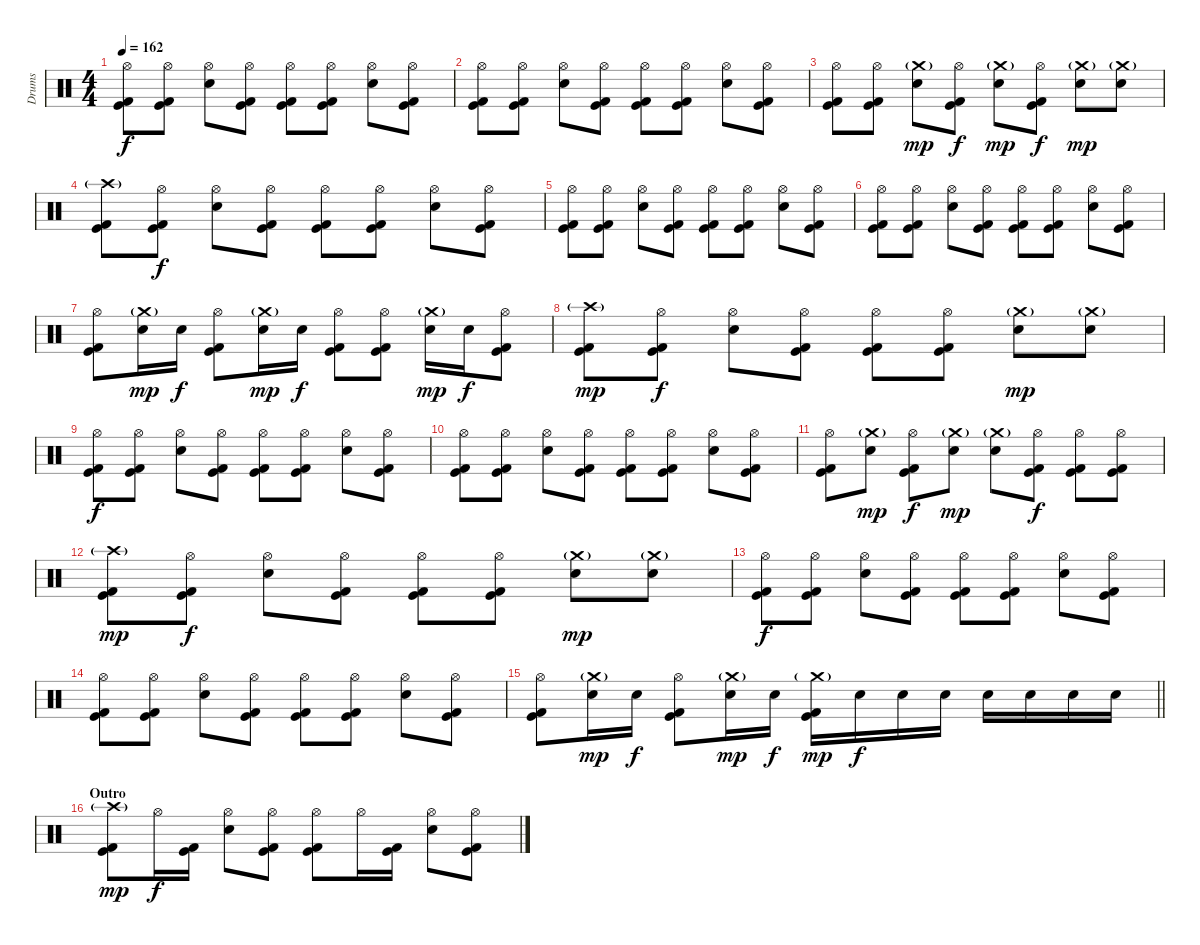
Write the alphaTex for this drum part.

\track ("Drums" "Drums") {instrument percussion}
\staff {score}
\articulation defaults
\ts (4 4)
\tempo 162
\clef neutral
\ks c
("Hi-Hat (open)" "Kick (hit)" "Kick (hit) 2").8{dy f} ("Hi-Hat (open)" "Kick (hit)" "Kick (hit) 2").8 ("Hi-Hat (open)" "Electric Snare (hit)").8 ("Hi-Hat (open)" "Kick (hit)" "Kick (hit) 2").8 ("Hi-Hat (open)" "Kick (hit)" "Kick (hit) 2").8 ("Hi-Hat (open)" "Kick (hit)" "Kick (hit) 2").8 ("Hi-Hat (open)" "Electric Snare (hit)").8 ("Hi-Hat (open)" "Kick (hit)" "Kick (hit) 2").8 |
("Hi-Hat (open)" "Kick (hit)" "Kick (hit) 2").8 ("Hi-Hat (open)" "Kick (hit)" "Kick (hit) 2").8 ("Hi-Hat (open)" "Electric Snare (hit)").8 ("Hi-Hat (open)" "Kick (hit)" "Kick (hit) 2").8 ("Hi-Hat (open)" "Kick (hit)" "Kick (hit) 2").8 ("Hi-Hat (open)" "Kick (hit)" "Kick (hit) 2").8 ("Hi-Hat (open)" "Electric Snare (hit)").8 ("Hi-Hat (open)" "Kick (hit)" "Kick (hit) 2").8 |
("Hi-Hat (open)" "Kick (hit)" "Kick (hit) 2").8 ("Hi-Hat (open)" "Kick (hit)" "Kick (hit) 2").8 ("Crash medium (hit)"{g} "Electric Snare (hit)").8{dy mp} ("Hi-Hat (open)" "Kick (hit)" "Kick (hit) 2").8{dy f} ("Crash medium (hit)"{g} "Electric Snare (hit)").8{dy mp} ("Hi-Hat (open)" "Kick (hit)" "Kick (hit) 2").8{dy f} ("Crash medium (hit)"{g} "Electric Snare (hit)").8{dy mp} ("Crash medium (hit)"{g} "Electric Snare (hit)").8 |
("Crash high (hit)"{g} "Kick (hit)" "Kick (hit) 2").8 ("Hi-Hat (open)" "Kick (hit)" "Kick (hit) 2").8{dy f} ("Hi-Hat (open)" "Electric Snare (hit)").8 ("Hi-Hat (open)" "Kick (hit)" "Kick (hit) 2").8 ("Hi-Hat (open)" "Kick (hit)" "Kick (hit) 2").8 ("Hi-Hat (open)" "Kick (hit)" "Kick (hit) 2").8 ("Hi-Hat (open)" "Electric Snare (hit)").8 ("Hi-Hat (open)" "Kick (hit)" "Kick (hit) 2").8 |
("Hi-Hat (open)" "Kick (hit)" "Kick (hit) 2").8 ("Hi-Hat (open)" "Kick (hit)" "Kick (hit) 2").8 ("Hi-Hat (open)" "Electric Snare (hit)").8 ("Hi-Hat (open)" "Kick (hit)" "Kick (hit) 2").8 ("Hi-Hat (open)" "Kick (hit)" "Kick (hit) 2").8 ("Hi-Hat (open)" "Kick (hit)" "Kick (hit) 2").8 ("Hi-Hat (open)" "Electric Snare (hit)").8 ("Hi-Hat (open)" "Kick (hit)" "Kick (hit) 2").8 |
("Hi-Hat (open)" "Kick (hit)" "Kick (hit) 2").8 ("Hi-Hat (open)" "Kick (hit)" "Kick (hit) 2").8 ("Hi-Hat (open)" "Electric Snare (hit)").8 ("Hi-Hat (open)" "Kick (hit)" "Kick (hit) 2").8 ("Hi-Hat (open)" "Kick (hit)" "Kick (hit) 2").8 ("Hi-Hat (open)" "Kick (hit)" "Kick (hit) 2").8 ("Hi-Hat (open)" "Electric Snare (hit)").8 ("Hi-Hat (open)" "Kick (hit)" "Kick (hit) 2").8 |
("Hi-Hat (open)" "Kick (hit)" "Kick (hit) 2").8 ("Crash medium (hit)"{g} "Electric Snare (hit)").16{dy mp} "Electric Snare (hit)".16{dy f} ("Hi-Hat (open)" "Kick (hit)" "Kick (hit) 2").8 ("Crash medium (hit)"{g} "Electric Snare (hit)").16{dy mp} "Electric Snare (hit)".16{dy f} ("Hi-Hat (open)" "Kick (hit)" "Kick (hit) 2").8 ("Hi-Hat (open)" "Kick (hit)" "Kick (hit) 2").8 ("Crash medium (hit)"{g} "Electric Snare (hit)").16{dy mp} "Electric Snare (hit)".16{dy f} ("Hi-Hat (open)" "Kick (hit)" "Kick (hit) 2").8 |
("Crash high (hit)"{g} "Kick (hit)" "Kick (hit) 2").8{dy mp} ("Hi-Hat (open)" "Kick (hit)" "Kick (hit) 2").8{dy f} ("Hi-Hat (open)" "Electric Snare (hit)").8 ("Hi-Hat (open)" "Kick (hit)" "Kick (hit) 2").8 ("Hi-Hat (open)" "Kick (hit)" "Kick (hit) 2").8 ("Hi-Hat (open)" "Kick (hit)" "Kick (hit) 2").8 ("Crash medium (hit)"{g} "Electric Snare (hit)").8{dy mp} ("Crash medium (hit)"{g} "Electric Snare (hit)").8 |
("Hi-Hat (open)" "Kick (hit)" "Kick (hit) 2").8{dy f} ("Hi-Hat (open)" "Kick (hit)" "Kick (hit) 2").8 ("Hi-Hat (open)" "Electric Snare (hit)").8 ("Hi-Hat (open)" "Kick (hit)" "Kick (hit) 2").8 ("Hi-Hat (open)" "Kick (hit)" "Kick (hit) 2").8 ("Hi-Hat (open)" "Kick (hit)" "Kick (hit) 2").8 ("Hi-Hat (open)" "Electric Snare (hit)").8 ("Hi-Hat (open)" "Kick (hit)" "Kick (hit) 2").8 |
("Hi-Hat (open)" "Kick (hit)" "Kick (hit) 2").8 ("Hi-Hat (open)" "Kick (hit)" "Kick (hit) 2").8 ("Hi-Hat (open)" "Electric Snare (hit)").8 ("Hi-Hat (open)" "Kick (hit)" "Kick (hit) 2").8 ("Hi-Hat (open)" "Kick (hit)" "Kick (hit) 2").8 ("Hi-Hat (open)" "Kick (hit)" "Kick (hit) 2").8 ("Hi-Hat (open)" "Electric Snare (hit)").8 ("Hi-Hat (open)" "Kick (hit)" "Kick (hit) 2").8 |
("Hi-Hat (open)" "Kick (hit)" "Kick (hit) 2").8 ("Crash medium (hit)"{g} "Electric Snare (hit)").8{dy mp} ("Hi-Hat (open)" "Kick (hit)" "Kick (hit) 2").8{dy f} ("Crash medium (hit)"{g} "Electric Snare (hit)").8{dy mp} ("Crash medium (hit)"{g} "Electric Snare (hit)").8 ("Hi-Hat (open)" "Kick (hit)" "Kick (hit) 2").8{dy f} ("Hi-Hat (open)" "Kick (hit)" "Kick (hit) 2").8 ("Hi-Hat (open)" "Kick (hit)" "Kick (hit) 2").8 |
("Crash high (hit)"{g} "Kick (hit)" "Kick (hit) 2").8{dy mp} ("Hi-Hat (open)" "Kick (hit)" "Kick (hit) 2").8{dy f} ("Hi-Hat (open)" "Electric Snare (hit)").8 ("Hi-Hat (open)" "Kick (hit)" "Kick (hit) 2").8 ("Hi-Hat (open)" "Kick (hit)" "Kick (hit) 2").8 ("Hi-Hat (open)" "Kick (hit)" "Kick (hit) 2").8 ("Crash medium (hit)"{g} "Electric Snare (hit)").8{dy mp} ("Crash medium (hit)"{g} "Electric Snare (hit)").8 |
("Hi-Hat (open)" "Kick (hit)" "Kick (hit) 2").8{dy f} ("Hi-Hat (open)" "Kick (hit)" "Kick (hit) 2").8 ("Hi-Hat (open)" "Electric Snare (hit)").8 ("Hi-Hat (open)" "Kick (hit)" "Kick (hit) 2").8 ("Hi-Hat (open)" "Kick (hit)" "Kick (hit) 2").8 ("Hi-Hat (open)" "Kick (hit)" "Kick (hit) 2").8 ("Hi-Hat (open)" "Electric Snare (hit)").8 ("Hi-Hat (open)" "Kick (hit)" "Kick (hit) 2").8 |
("Hi-Hat (open)" "Kick (hit)" "Kick (hit) 2").8 ("Hi-Hat (open)" "Kick (hit)" "Kick (hit) 2").8 ("Hi-Hat (open)" "Electric Snare (hit)").8 ("Hi-Hat (open)" "Kick (hit)" "Kick (hit) 2").8 ("Hi-Hat (open)" "Kick (hit)" "Kick (hit) 2").8 ("Hi-Hat (open)" "Kick (hit)" "Kick (hit) 2").8 ("Hi-Hat (open)" "Electric Snare (hit)").8 ("Hi-Hat (open)" "Kick (hit)" "Kick (hit) 2").8 |
\barLineRight lightlight
("Hi-Hat (open)" "Kick (hit)" "Kick (hit) 2").8 ("Crash medium (hit)"{g} "Electric Snare (hit)").16{dy mp} "Electric Snare (hit)".16{dy f} ("Hi-Hat (open)" "Kick (hit)" "Kick (hit) 2").8 ("Crash medium (hit)"{g} "Electric Snare (hit)").16{dy mp} "Electric Snare (hit)".16{dy f} ("Crash medium (hit)"{g} "Kick (hit)" "Kick (hit) 2").16{dy mp} "Electric Snare (hit)".16{dy f} "Electric Snare (hit)".16 "Electric Snare (hit)".16 "Electric Snare (hit)".16 "Electric Snare (hit)".16 "Electric Snare (hit)".16 "Electric Snare (hit)".16 |
\section ("" "Outro")
("Crash high (hit)"{g} "Kick (hit)" "Kick (hit) 2").8{dy mp} "Hi-Hat (open)".16{dy f} ("Kick (hit)" "Kick (hit) 2").16 ("Hi-Hat (open)" "Electric Snare (hit)").8 ("Hi-Hat (open)" "Kick (hit)" "Kick (hit) 2").8 ("Hi-Hat (open)" "Kick (hit)" "Kick (hit) 2").8 "Hi-Hat (open)".16 ("Kick (hit)" "Kick (hit) 2").16 ("Hi-Hat (open)" "Electric Snare (hit)").8 ("Hi-Hat (open)" "Kick (hit)" "Kick (hit) 2").8
